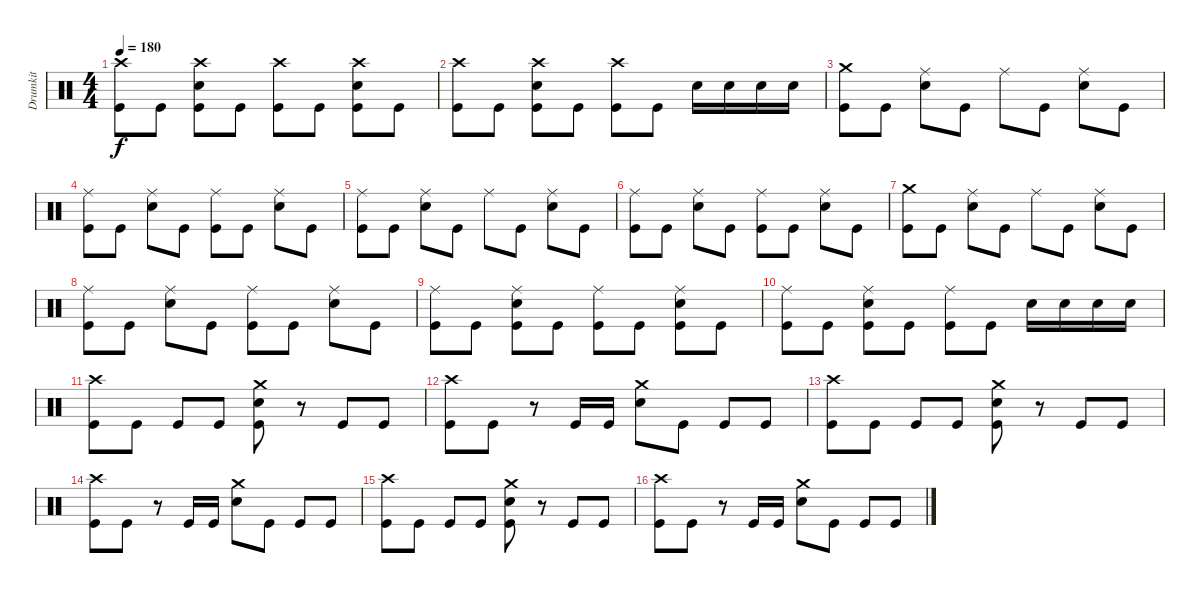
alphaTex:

\track ("Drumkit" "Drumkit") {instrument percussion}
\staff {score}
\articulation defaults
\ts (4 4)
\tempo 180
\clef neutral
\ks c
("Crash high (hit)" "Kick (hit)").8{dy f} "Kick (hit)".8 ("Crash high (hit)" "Snare (hit) 2" "Kick (hit)").8 "Kick (hit)".8 ("Crash high (hit)" "Kick (hit)").8 "Kick (hit)".8 ("Crash high (hit)" "Snare (hit) 2" "Kick (hit)").8 "Kick (hit)".8 |
("Crash high (hit)" "Kick (hit)").8 "Kick (hit)".8 ("Crash high (hit)" "Snare (hit) 2" "Kick (hit)").8 "Kick (hit)".8 ("Crash high (hit)" "Kick (hit)").8 "Kick (hit)".8 "Snare (hit) 2".16 "Snare (hit) 2".16 "Snare (hit) 2".16 "Snare (hit) 2".16 |
("Crash medium (hit)" "Kick (hit)").8 "Kick (hit)".8 ("Ride (middle)" "Snare (hit) 2").8 "Kick (hit)".8 "Ride (middle)".8 "Kick (hit)".8 ("Ride (middle)" "Snare (hit) 2").8 "Kick (hit)".8 |
("Ride (middle)" "Kick (hit)").8 "Kick (hit)".8 ("Ride (middle)" "Snare (hit) 2").8 "Kick (hit)".8 ("Ride (middle)" "Kick (hit)").8 "Kick (hit)".8 ("Ride (middle)" "Snare (hit) 2").8 "Kick (hit)".8 |
("Ride (middle)" "Kick (hit)").8 "Kick (hit)".8 ("Ride (middle)" "Snare (hit) 2").8 "Kick (hit)".8 "Ride (middle)".8 "Kick (hit)".8 ("Ride (middle)" "Snare (hit) 2").8 "Kick (hit)".8 |
("Ride (middle)" "Kick (hit)").8 "Kick (hit)".8 ("Ride (middle)" "Snare (hit) 2").8 "Kick (hit)".8 ("Ride (middle)" "Kick (hit)").8 "Kick (hit)".8 ("Ride (middle)" "Snare (hit) 2").8 "Kick (hit)".8 |
("Crash medium (hit)" "Kick (hit)").8 "Kick (hit)".8 ("Ride (middle)" "Snare (hit) 2").8 "Kick (hit)".8 "Ride (middle)".8 "Kick (hit)".8 ("Ride (middle)" "Snare (hit) 2").8 "Kick (hit)".8 |
("Ride (middle)" "Kick (hit)").8 "Kick (hit)".8 ("Ride (middle)" "Snare (hit) 2").8 "Kick (hit)".8 ("Ride (middle)" "Kick (hit)").8 "Kick (hit)".8 ("Ride (middle)" "Snare (hit) 2").8 "Kick (hit)".8 |
("Ride (middle)" "Kick (hit)").8 "Kick (hit)".8 ("Ride (middle)" "Snare (hit) 2" "Kick (hit)").8 "Kick (hit)".8 ("Ride (middle)" "Kick (hit)").8 "Kick (hit)".8 ("Ride (middle)" "Snare (hit) 2" "Kick (hit)").8 "Kick (hit)".8 |
("Ride (middle)" "Kick (hit)").8 "Kick (hit)".8 ("Ride (middle)" "Snare (hit) 2" "Kick (hit)").8 "Kick (hit)".8 ("Ride (middle)" "Kick (hit)").8 "Kick (hit)".8 "Snare (hit) 2".16 "Snare (hit) 2".16 "Snare (hit) 2".16 "Snare (hit) 2".16 |
("Kick (hit)" "Crash high (hit)").8 "Kick (hit)".8 "Kick (hit)".8 "Kick (hit)".8 ("Kick (hit)" "Crash medium (hit)" "Snare (hit) 2").8 r.8 "Kick (hit)".8 "Kick (hit)".8 |
("Kick (hit)" "Crash high (hit)").8 "Kick (hit)".8 r.8 "Kick (hit)".16 "Kick (hit)".16 ("Crash medium (hit)" "Snare (hit) 2").8 "Kick (hit)".8 "Kick (hit)".8 "Kick (hit)".8 |
("Kick (hit)" "Crash high (hit)").8 "Kick (hit)".8 "Kick (hit)".8 "Kick (hit)".8 ("Kick (hit)" "Crash medium (hit)" "Snare (hit) 2").8 r.8 "Kick (hit)".8 "Kick (hit)".8 |
("Kick (hit)" "Crash high (hit)").8 "Kick (hit)".8 r.8 "Kick (hit)".16 "Kick (hit)".16 ("Crash medium (hit)" "Snare (hit) 2").8 "Kick (hit)".8 "Kick (hit)".8 "Kick (hit)".8 |
("Kick (hit)" "Crash high (hit)").8 "Kick (hit)".8 "Kick (hit)".8 "Kick (hit)".8 ("Kick (hit)" "Crash medium (hit)" "Snare (hit) 2").8 r.8 "Kick (hit)".8 "Kick (hit)".8 |
("Kick (hit)" "Crash high (hit)").8 "Kick (hit)".8 r.8 "Kick (hit)".16 "Kick (hit)".16 ("Crash medium (hit)" "Snare (hit) 2").8 "Kick (hit)".8 "Kick (hit)".8 "Kick (hit)".8
